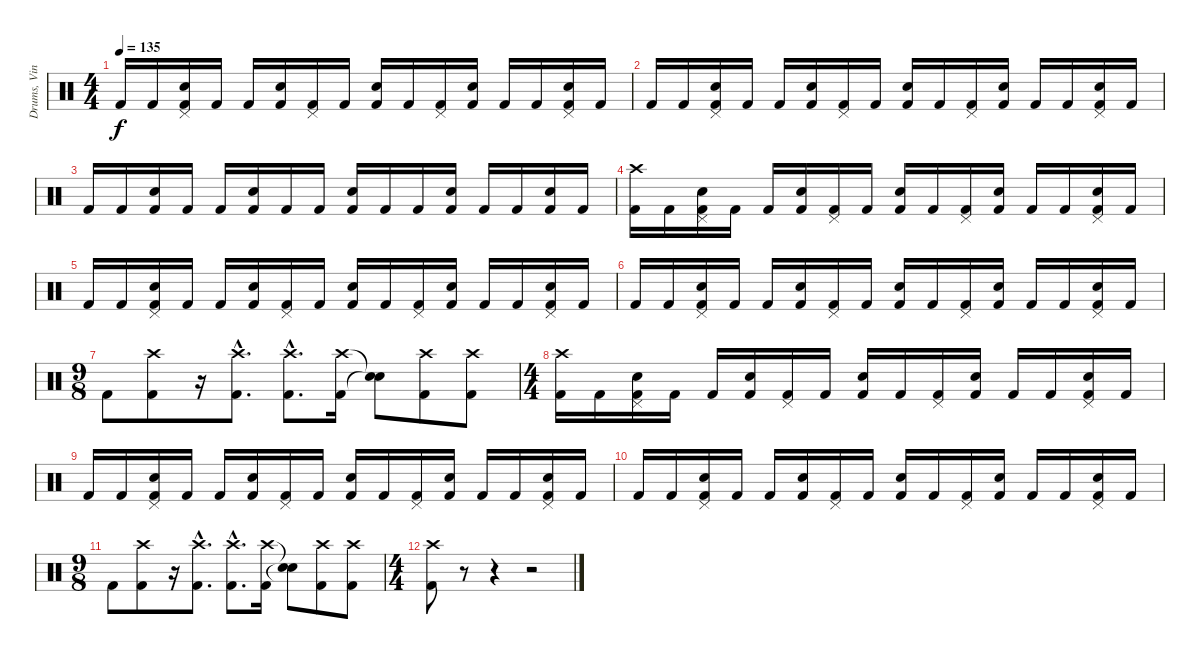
\track ("Drums, Vinnie" "Drums, Vin") {instrument percussion}
\staff {score}
\articulation defaults
\ts (4 4)
\tempo 135
\clef neutral
\ks c "Kick (hit) 2".16{dy f} "Kick (hit) 2".16
("Pedal Hi-Hat (hit)" "Electric Snare (hit)" "Kick (hit) 2").16 "Kick (hit) 2".16 "Kick (hit) 2".16 ("Electric Snare (hit)" "Kick (hit) 2").16 ("Pedal Hi-Hat (hit)" "Kick (hit) 2").16 "Kick (hit) 2".16 ("Electric Snare (hit)" "Kick (hit) 2").16 "Kick (hit) 2".16 ("Pedal Hi-Hat (hit)" "Kick (hit) 2").16 ("Electric Snare (hit)" "Kick (hit) 2").16 "Kick (hit) 2".16 "Kick (hit) 2".16 ("Pedal Hi-Hat (hit)" "Electric Snare (hit)" "Kick (hit) 2").16 "Kick (hit) 2".16 |
"Kick (hit) 2".16 "Kick (hit) 2".16 ("Pedal Hi-Hat (hit)" "Electric Snare (hit)" "Kick (hit) 2").16 "Kick (hit) 2".16 "Kick (hit) 2".16 ("Electric Snare (hit)" "Kick (hit) 2").16 ("Pedal Hi-Hat (hit)" "Kick (hit) 2").16 "Kick (hit) 2".16 ("Electric Snare (hit)" "Kick (hit) 2").16 "Kick (hit) 2".16 ("Pedal Hi-Hat (hit)" "Kick (hit) 2").16 ("Electric Snare (hit)" "Kick (hit) 2").16 "Kick (hit) 2".16 "Kick (hit) 2".16 ("Pedal Hi-Hat (hit)" "Electric Snare (hit)" "Kick (hit) 2").16 "Kick (hit) 2".16 |
"Kick (hit) 2".16 "Kick (hit) 2".16 ("Electric Snare (hit)" "Kick (hit) 2").16 "Kick (hit) 2".16 "Kick (hit) 2".16 ("Electric Snare (hit)" "Kick (hit) 2").16 "Kick (hit) 2".16 "Kick (hit) 2".16 ("Electric Snare (hit)" "Kick (hit) 2").16 "Kick (hit) 2".16 "Kick (hit) 2".16 ("Electric Snare (hit)" "Kick (hit) 2").16 "Kick (hit) 2".16 "Kick (hit) 2".16 ("Electric Snare (hit)" "Kick (hit) 2").16 "Kick (hit) 2".16 |
("Crash high (hit)" "Kick (hit) 2").16 "Kick (hit) 2".16 ("Pedal Hi-Hat (hit)" "Electric Snare (hit)" "Kick (hit) 2").16 "Kick (hit) 2".16 "Kick (hit) 2".16 ("Electric Snare (hit)" "Kick (hit) 2").16 ("Pedal Hi-Hat (hit)" "Kick (hit) 2").16 "Kick (hit) 2".16 ("Electric Snare (hit)" "Kick (hit) 2").16 "Kick (hit) 2".16 ("Pedal Hi-Hat (hit)" "Kick (hit) 2").16 ("Electric Snare (hit)" "Kick (hit) 2").16 "Kick (hit) 2".16 "Kick (hit) 2".16 ("Pedal Hi-Hat (hit)" "Electric Snare (hit)" "Kick (hit) 2").16 "Kick (hit) 2".16 |
"Kick (hit) 2".16 "Kick (hit) 2".16 ("Pedal Hi-Hat (hit)" "Electric Snare (hit)" "Kick (hit) 2").16 "Kick (hit) 2".16 "Kick (hit) 2".16 ("Electric Snare (hit)" "Kick (hit) 2").16 ("Pedal Hi-Hat (hit)" "Kick (hit) 2").16 "Kick (hit) 2".16 ("Electric Snare (hit)" "Kick (hit) 2").16 "Kick (hit) 2".16 ("Pedal Hi-Hat (hit)" "Kick (hit) 2").16 ("Electric Snare (hit)" "Kick (hit) 2").16 "Kick (hit) 2".16 "Kick (hit) 2".16 ("Pedal Hi-Hat (hit)" "Electric Snare (hit)" "Kick (hit) 2").16 "Kick (hit) 2".16 |
"Kick (hit) 2".16 "Kick (hit) 2".16 ("Pedal Hi-Hat (hit)" "Electric Snare (hit)" "Kick (hit) 2").16 "Kick (hit) 2".16 "Kick (hit) 2".16 ("Electric Snare (hit)" "Kick (hit) 2").16 ("Pedal Hi-Hat (hit)" "Kick (hit) 2").16 "Kick (hit) 2".16 ("Electric Snare (hit)" "Kick (hit) 2").16 "Kick (hit) 2".16 ("Pedal Hi-Hat (hit)" "Kick (hit) 2").16 ("Electric Snare (hit)" "Kick (hit) 2").16 "Kick (hit) 2".16 "Kick (hit) 2".16 ("Pedal Hi-Hat (hit)" "Electric Snare (hit)" "Kick (hit) 2").16 "Kick (hit) 2".16 |
\ts (9 8)
"Kick (hit) 2".8 ("Crash high (hit)" "Kick (hit) 2").8 r.16 ("Crash high (hit)"{hac} "Kick (hit) 2"{hac}).8{d} ("Crash high (hit)"{hac} "Kick (hit) 2"{hac}).8{d} ("Crash high (hit)" "Kick (hit) 2").16 ("Snare (hit)"{t} "Snare (hit)"{t}).8 ("Crash high (hit)" "Kick (hit) 2").8 ("Crash high (hit)" "Kick (hit) 2").8 |
\ts (4 4)
("Crash high (hit)" "Kick (hit) 2").16 "Kick (hit) 2".16 ("Pedal Hi-Hat (hit)" "Electric Snare (hit)" "Kick (hit) 2").16 "Kick (hit) 2".16 "Kick (hit) 2".16 ("Electric Snare (hit)" "Kick (hit) 2").16 ("Pedal Hi-Hat (hit)" "Kick (hit) 2").16 "Kick (hit) 2".16 ("Electric Snare (hit)" "Kick (hit) 2").16 "Kick (hit) 2".16 ("Pedal Hi-Hat (hit)" "Kick (hit) 2").16 ("Electric Snare (hit)" "Kick (hit) 2").16 "Kick (hit) 2".16 "Kick (hit) 2".16 ("Pedal Hi-Hat (hit)" "Electric Snare (hit)" "Kick (hit) 2").16 "Kick (hit) 2".16 |
"Kick (hit) 2".16 "Kick (hit) 2".16 ("Pedal Hi-Hat (hit)" "Electric Snare (hit)" "Kick (hit) 2").16 "Kick (hit) 2".16 "Kick (hit) 2".16 ("Electric Snare (hit)" "Kick (hit) 2").16 ("Pedal Hi-Hat (hit)" "Kick (hit) 2").16 "Kick (hit) 2".16 ("Electric Snare (hit)" "Kick (hit) 2").16 "Kick (hit) 2".16 ("Pedal Hi-Hat (hit)" "Kick (hit) 2").16 ("Electric Snare (hit)" "Kick (hit) 2").16 "Kick (hit) 2".16 "Kick (hit) 2".16 ("Pedal Hi-Hat (hit)" "Electric Snare (hit)" "Kick (hit) 2").16 "Kick (hit) 2".16 |
"Kick (hit) 2".16 "Kick (hit) 2".16 ("Pedal Hi-Hat (hit)" "Electric Snare (hit)" "Kick (hit) 2").16 "Kick (hit) 2".16 "Kick (hit) 2".16 ("Electric Snare (hit)" "Kick (hit) 2").16 ("Pedal Hi-Hat (hit)" "Kick (hit) 2").16 "Kick (hit) 2".16 ("Electric Snare (hit)" "Kick (hit) 2").16 "Kick (hit) 2".16 ("Pedal Hi-Hat (hit)" "Kick (hit) 2").16 ("Electric Snare (hit)" "Kick (hit) 2").16 "Kick (hit) 2".16 "Kick (hit) 2".16 ("Pedal Hi-Hat (hit)" "Electric Snare (hit)" "Kick (hit) 2").16 "Kick (hit) 2".16 |
\ts (9 8)
"Kick (hit) 2".8 ("Crash high (hit)" "Kick (hit) 2").8 r.16 ("Crash high (hit)"{hac} "Kick (hit) 2"{hac}).8{d} ("Crash high (hit)"{hac} "Kick (hit) 2"{hac}).8{d} ("Crash high (hit)" "Kick (hit) 2").16 ("Snare (hit)"{t} "Snare (hit)"{t}).8 ("Crash high (hit)" "Kick (hit) 2").8 ("Crash high (hit)" "Kick (hit) 2").8 |
\ts (4 4)
("Crash high (hit)" "Kick (hit) 2").8 r.8 r.4 r.2
